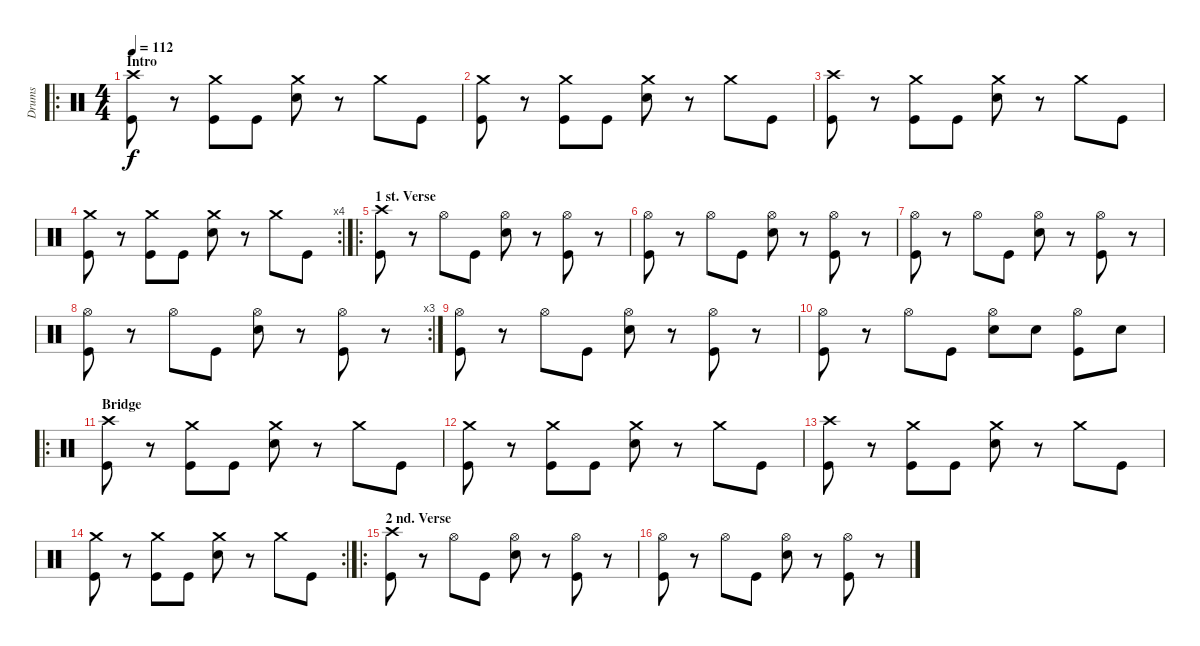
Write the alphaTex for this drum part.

\track ("Drums" "Drums") {instrument percussion}
\staff {score}
\articulation defaults
\ro
\ts (4 4)
\section ("" "Intro")
\tempo 112
\clef neutral
\ks c
("Crash high (hit)" "Kick (hit)").8{dy f} r.8 ("Crash medium (hit)" "Kick (hit)").8 "Kick (hit)".8 ("Crash medium (hit)" "Snare (hit) 2").8 r.8 "Crash medium (hit)".8 "Kick (hit)".8 |
("Crash medium (hit)" "Kick (hit)").8 r.8 ("Crash medium (hit)" "Kick (hit)").8 "Kick (hit)".8 ("Crash medium (hit)" "Snare (hit) 2").8 r.8 "Crash medium (hit)".8 "Kick (hit)".8 |
("Crash high (hit)" "Kick (hit)").8 r.8 ("Crash medium (hit)" "Kick (hit)").8 "Kick (hit)".8 ("Crash medium (hit)" "Snare (hit) 2").8 r.8 "Crash medium (hit)".8 "Kick (hit)".8 |
\rc 4
("Crash medium (hit)" "Kick (hit)").8 r.8 ("Crash medium (hit)" "Kick (hit)").8 "Kick (hit)".8 ("Crash medium (hit)" "Snare (hit) 2").8 r.8 "Crash medium (hit)".8 "Kick (hit)".8 |
\ro
\section ("" "1 st. Verse")
("Crash high (hit)" "Kick (hit)").8 r.8 "Hi-Hat (open)".8 "Kick (hit)".8 ("Hi-Hat (open)" "Snare (hit) 2").8 r.8 ("Hi-Hat (open)" "Kick (hit)").8 r.8 |
("Hi-Hat (open)" "Kick (hit)").8 r.8 "Hi-Hat (open)".8 "Kick (hit)".8 ("Hi-Hat (open)" "Snare (hit) 2").8 r.8 ("Hi-Hat (open)" "Kick (hit)").8 r.8 |
("Hi-Hat (open)" "Kick (hit)").8 r.8 "Hi-Hat (open)".8 "Kick (hit)".8 ("Hi-Hat (open)" "Snare (hit) 2").8 r.8 ("Hi-Hat (open)" "Kick (hit)").8 r.8 |
\rc 3
("Hi-Hat (open)" "Kick (hit)").8 r.8 "Hi-Hat (open)".8 "Kick (hit)".8 ("Hi-Hat (open)" "Snare (hit) 2").8 r.8 ("Hi-Hat (open)" "Kick (hit)").8 r.8 |
("Hi-Hat (open)" "Kick (hit)").8 r.8 "Hi-Hat (open)".8 "Kick (hit)".8 ("Hi-Hat (open)" "Snare (hit) 2").8 r.8 ("Hi-Hat (open)" "Kick (hit)").8 r.8 |
("Hi-Hat (open)" "Kick (hit)").8 r.8 "Hi-Hat (open)".8 "Kick (hit)".8 ("Hi-Hat (open)" "Snare (hit) 2").8 "Snare (hit) 2".8 ("Hi-Hat (open)" "Kick (hit)").8 "Snare (hit) 2".8 |
\ro
\section ("" "Bridge")
("Crash high (hit)" "Kick (hit)").8 r.8 ("Crash medium (hit)" "Kick (hit)").8 "Kick (hit)".8 ("Crash medium (hit)" "Snare (hit) 2").8 r.8 "Crash medium (hit)".8 "Kick (hit)".8 |
("Crash medium (hit)" "Kick (hit)").8 r.8 ("Crash medium (hit)" "Kick (hit)").8 "Kick (hit)".8 ("Crash medium (hit)" "Snare (hit) 2").8 r.8 "Crash medium (hit)".8 "Kick (hit)".8 |
("Crash high (hit)" "Kick (hit)").8 r.8 ("Crash medium (hit)" "Kick (hit)").8 "Kick (hit)".8 ("Crash medium (hit)" "Snare (hit) 2").8 r.8 "Crash medium (hit)".8 "Kick (hit)".8 |
\rc 2
("Crash medium (hit)" "Kick (hit)").8 r.8 ("Crash medium (hit)" "Kick (hit)").8 "Kick (hit)".8 ("Crash medium (hit)" "Snare (hit) 2").8 r.8 "Crash medium (hit)".8 "Kick (hit)".8 |
\ro
\section ("" "2 nd. Verse")
("Crash high (hit)" "Kick (hit)").8 r.8 "Hi-Hat (open)".8 "Kick (hit)".8 ("Hi-Hat (open)" "Snare (hit) 2").8 r.8 ("Hi-Hat (open)" "Kick (hit)").8 r.8 |
("Hi-Hat (open)" "Kick (hit)").8 r.8 "Hi-Hat (open)".8 "Kick (hit)".8 ("Hi-Hat (open)" "Snare (hit) 2").8 r.8 ("Hi-Hat (open)" "Kick (hit)").8 r.8
